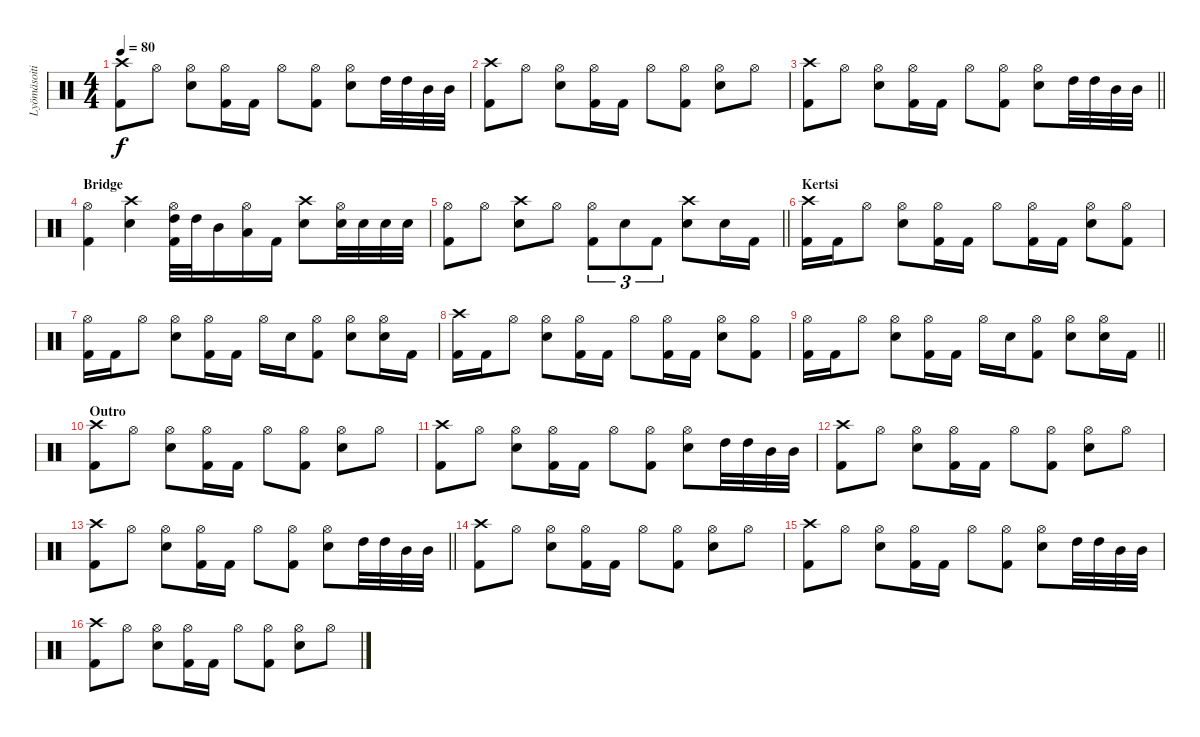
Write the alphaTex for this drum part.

\track ("Lyömäsoitin" "Lyömäsoiti") {instrument percussion}
\staff {score}
\articulation defaults
\ts (4 4)
\tempo 80
\clef neutral
\ks c
("Crash high (hit)" "Kick (hit) 2").8{dy f} "Hi-Hat (open)".8 ("Hi-Hat (open)" "Snare (hit) 2").8 ("Hi-Hat (open)" "Kick (hit) 2").16 "Kick (hit) 2".16 "Hi-Hat (open)".8 ("Hi-Hat (open)" "Kick (hit) 2").8 ("Hi-Hat (open)" "Snare (hit) 2").8 "High Tom (hit)".32 "High Tom (hit)".32 "Mid Tom (hit)".32 "Mid Tom (hit)".32 |
("Crash high (hit)" "Kick (hit) 2").8 "Hi-Hat (open)".8 ("Hi-Hat (open)" "Snare (hit) 2").8 ("Hi-Hat (open)" "Kick (hit) 2").16 "Kick (hit) 2".16 "Hi-Hat (open)".8 ("Hi-Hat (open)" "Kick (hit) 2").8 ("Hi-Hat (open)" "Snare (hit) 2").8 "Hi-Hat (open)".8 |
\barLineRight lightlight
("Crash high (hit)" "Kick (hit) 2").8 "Hi-Hat (open)".8 ("Hi-Hat (open)" "Snare (hit) 2").8 ("Hi-Hat (open)" "Kick (hit) 2").16 "Kick (hit) 2".16 "Hi-Hat (open)".8 ("Hi-Hat (open)" "Kick (hit) 2").8 ("Hi-Hat (open)" "Snare (hit) 2").8 "High Tom (hit)".32 "High Tom (hit)".32 "Mid Tom (hit)".32 "Mid Tom (hit)".32 |
\section ("" "Bridge")
("Hi-Hat (open)" "Kick (hit) 2").4 ("Crash high (hit)" "Snare (hit) 2").4 ("Hi-Hat (open)" "High Tom (hit)" "Kick (hit) 2").32 "High Tom (hit)".32 "Mid Tom (hit)".16 ("Hi-Hat (open)" "Low Tom (hit)").16 "Kick (hit) 2".16 ("Crash high (hit)" "Snare (hit) 2").8 ("Hi-Hat (open)" "Snare (hit) 2").32 "Snare (hit) 2".32 "Snare (hit) 2".32 "Snare (hit) 2".32 |
\barLineRight lightlight
("Hi-Hat (open)" "Kick (hit) 2").8 "Hi-Hat (open)".8 ("Crash high (hit)" "Snare (hit) 2").8 "Hi-Hat (open)".8 ("Hi-Hat (open)" "Kick (hit) 2").8{tu (3 2)} "Snare (hit) 2".8{tu (3 2)} "Kick (hit) 2".8{tu (3 2)} ("Crash high (hit)" "Snare (hit) 2").8 "Snare (hit) 2".16 "Kick (hit) 2".16 |
\section ("" "Kertsi")
("Crash high (hit)" "Kick (hit) 2").16 "Kick (hit) 2".16 "Hi-Hat (open)".8 ("Hi-Hat (open)" "Snare (hit) 2").8 ("Hi-Hat (open)" "Kick (hit) 2").16 "Kick (hit) 2".16 "Hi-Hat (open)".8 ("Hi-Hat (open)" "Kick (hit) 2").16 "Kick (hit) 2".16 ("Hi-Hat (open)" "Snare (hit) 2").8 ("Hi-Hat (open)" "Kick (hit) 2").8 |
("Hi-Hat (open)" "Kick (hit) 2").16 "Kick (hit) 2".16 "Hi-Hat (open)".8 ("Hi-Hat (open)" "Snare (hit) 2").8 ("Hi-Hat (open)" "Kick (hit) 2").16 "Kick (hit) 2".16 "Hi-Hat (open)".16 "Snare (hit) 2".16 ("Hi-Hat (open)" "Kick (hit) 2").8 ("Hi-Hat (open)" "Snare (hit) 2").8 ("Hi-Hat (open)" "Snare (hit) 2").16 "Kick (hit) 2".16 |
("Crash high (hit)" "Kick (hit) 2").16 "Kick (hit) 2".16 "Hi-Hat (open)".8 ("Hi-Hat (open)" "Snare (hit) 2").8 ("Hi-Hat (open)" "Kick (hit) 2").16 "Kick (hit) 2".16 "Hi-Hat (open)".8 ("Hi-Hat (open)" "Kick (hit) 2").16 "Kick (hit) 2".16 ("Hi-Hat (open)" "Snare (hit) 2").8 ("Hi-Hat (open)" "Kick (hit) 2").8 |
\barLineRight lightlight
("Hi-Hat (open)" "Kick (hit) 2").16 "Kick (hit) 2".16 "Hi-Hat (open)".8 ("Hi-Hat (open)" "Snare (hit) 2").8 ("Hi-Hat (open)" "Kick (hit) 2").16 "Kick (hit) 2".16 "Hi-Hat (open)".16 "Snare (hit) 2".16 ("Hi-Hat (open)" "Kick (hit) 2").8 ("Hi-Hat (open)" "Snare (hit) 2").8 ("Hi-Hat (open)" "Snare (hit) 2").16 "Kick (hit) 2".16 |
\section ("" "Outro")
("Crash high (hit)" "Kick (hit) 2").8 "Hi-Hat (open)".8 ("Hi-Hat (open)" "Snare (hit) 2").8 ("Hi-Hat (open)" "Kick (hit) 2").16 "Kick (hit) 2".16 "Hi-Hat (open)".8 ("Hi-Hat (open)" "Kick (hit) 2").8 ("Hi-Hat (open)" "Snare (hit) 2").8 "Hi-Hat (open)".8 |
("Crash high (hit)" "Kick (hit) 2").8 "Hi-Hat (open)".8 ("Hi-Hat (open)" "Snare (hit) 2").8 ("Hi-Hat (open)" "Kick (hit) 2").16 "Kick (hit) 2".16 "Hi-Hat (open)".8 ("Hi-Hat (open)" "Kick (hit) 2").8 ("Hi-Hat (open)" "Snare (hit) 2").8 "High Tom (hit)".32 "High Tom (hit)".32 "Mid Tom (hit)".32 "Mid Tom (hit)".32 |
("Crash high (hit)" "Kick (hit) 2").8 "Hi-Hat (open)".8 ("Hi-Hat (open)" "Snare (hit) 2").8 ("Hi-Hat (open)" "Kick (hit) 2").16 "Kick (hit) 2".16 "Hi-Hat (open)".8 ("Hi-Hat (open)" "Kick (hit) 2").8 ("Hi-Hat (open)" "Snare (hit) 2").8 "Hi-Hat (open)".8 |
\barLineRight lightlight
("Crash high (hit)" "Kick (hit) 2").8 "Hi-Hat (open)".8 ("Hi-Hat (open)" "Snare (hit) 2").8 ("Hi-Hat (open)" "Kick (hit) 2").16 "Kick (hit) 2".16 "Hi-Hat (open)".8 ("Hi-Hat (open)" "Kick (hit) 2").8 ("Hi-Hat (open)" "Snare (hit) 2").8 "High Tom (hit)".32 "High Tom (hit)".32 "Mid Tom (hit)".32 "Mid Tom (hit)".32 |
("Crash high (hit)" "Kick (hit) 2").8{volume 0} "Hi-Hat (open)".8 ("Hi-Hat (open)" "Snare (hit) 2").8 ("Hi-Hat (open)" "Kick (hit) 2").16 "Kick (hit) 2".16 "Hi-Hat (open)".8 ("Hi-Hat (open)" "Kick (hit) 2").8 ("Hi-Hat (open)" "Snare (hit) 2").8 "Hi-Hat (open)".8 |
("Crash high (hit)" "Kick (hit) 2").8 "Hi-Hat (open)".8 ("Hi-Hat (open)" "Snare (hit) 2").8 ("Hi-Hat (open)" "Kick (hit) 2").16 "Kick (hit) 2".16 "Hi-Hat (open)".8 ("Hi-Hat (open)" "Kick (hit) 2").8 ("Hi-Hat (open)" "Snare (hit) 2").8 "High Tom (hit)".32 "High Tom (hit)".32 "Mid Tom (hit)".32 "Mid Tom (hit)".32 |
("Crash high (hit)" "Kick (hit) 2").8 "Hi-Hat (open)".8 ("Hi-Hat (open)" "Snare (hit) 2").8 ("Hi-Hat (open)" "Kick (hit) 2").16 "Kick (hit) 2".16 "Hi-Hat (open)".8 ("Hi-Hat (open)" "Kick (hit) 2").8 ("Hi-Hat (open)" "Snare (hit) 2").8 "Hi-Hat (open)".8
